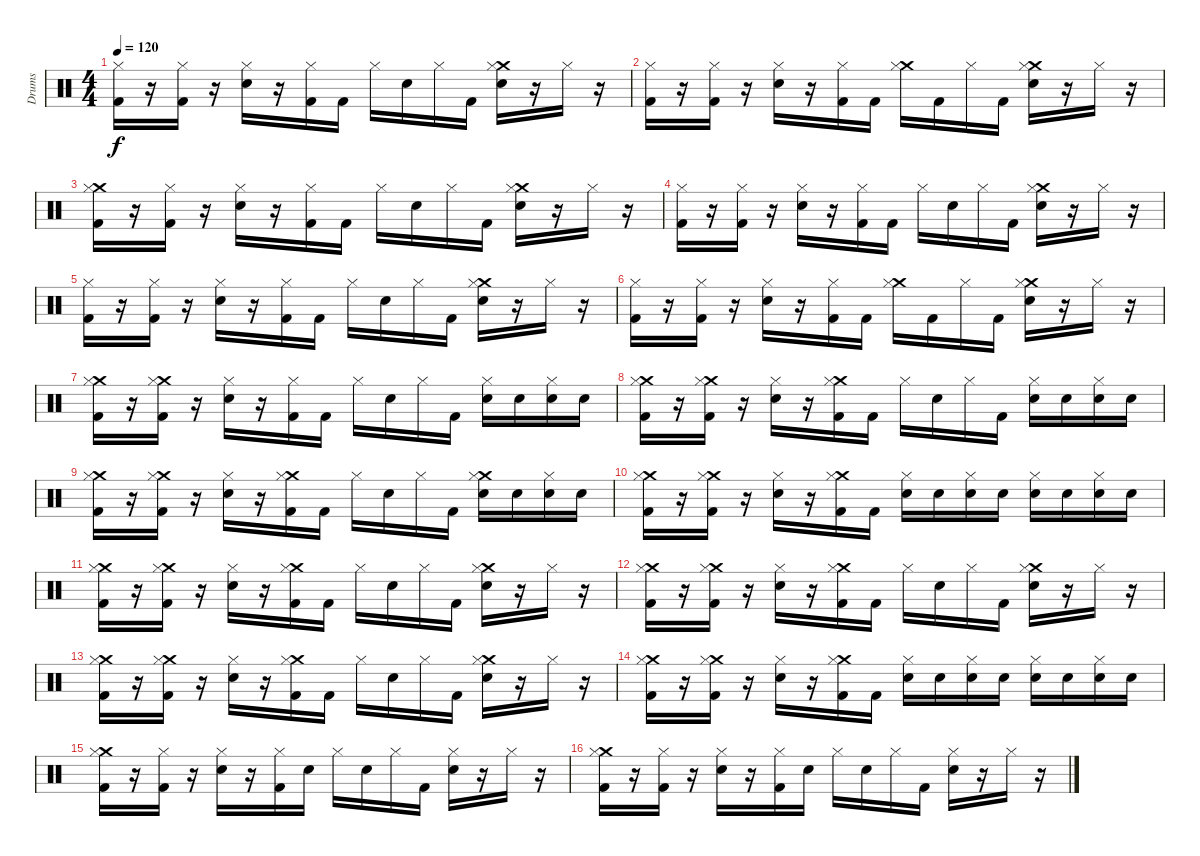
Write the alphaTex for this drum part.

\track ("Drums" "Drums") {instrument percussion}
\staff {score}
\articulation defaults
\ts (4 4)
\tempo 120
\clef neutral
\ks c
("Hi-Hat (closed)" "Kick (hit) 2").16{dy f} r.16 ("Hi-Hat (closed)" "Kick (hit) 2").16 r.16 ("Hi-Hat (closed)" "Snare (hit) 2").16 r.16 ("Hi-Hat (closed)" "Kick (hit) 2").16 "Kick (hit) 2".16 "Hi-Hat (closed)".16 "Snare (hit) 2".16 "Hi-Hat (closed)".16 "Kick (hit) 2".16 ("Crash medium (hit)" "Hi-Hat (closed)" "Snare (hit) 2").16 r.16 "Hi-Hat (closed)".16 r.16 |
("Hi-Hat (closed)" "Kick (hit) 2").16 r.16 ("Hi-Hat (closed)" "Kick (hit) 2").16 r.16 ("Hi-Hat (closed)" "Snare (hit) 2").16 r.16 ("Hi-Hat (closed)" "Kick (hit) 2").16 "Kick (hit) 2".16 ("Crash medium (hit)" "Hi-Hat (closed)").16 "Kick (hit) 2".16 "Hi-Hat (closed)".16 "Kick (hit) 2".16 ("Crash medium (hit)" "Hi-Hat (closed)" "Snare (hit) 2").16 r.16 "Hi-Hat (closed)".16 r.16 |
("Crash medium (hit)" "Hi-Hat (closed)" "Kick (hit) 2").16 r.16 ("Hi-Hat (closed)" "Kick (hit) 2").16 r.16 ("Hi-Hat (closed)" "Snare (hit) 2").16 r.16 ("Hi-Hat (closed)" "Kick (hit) 2").16 "Kick (hit) 2".16 "Hi-Hat (closed)".16 "Snare (hit) 2".16 "Hi-Hat (closed)".16 "Kick (hit) 2".16 ("Crash medium (hit)" "Hi-Hat (closed)" "Snare (hit) 2").16 r.16 "Hi-Hat (closed)".16 r.16 |
("Hi-Hat (closed)" "Kick (hit) 2").16 r.16 ("Hi-Hat (closed)" "Kick (hit) 2").16 r.16 ("Hi-Hat (closed)" "Snare (hit) 2").16 r.16 ("Hi-Hat (closed)" "Kick (hit) 2").16 "Kick (hit) 2".16 "Hi-Hat (closed)".16 "Snare (hit) 2".16 "Hi-Hat (closed)".16 "Kick (hit) 2".16 ("Crash medium (hit)" "Hi-Hat (closed)" "Snare (hit) 2").16 r.16 "Hi-Hat (closed)".16 r.16 |
("Hi-Hat (closed)" "Kick (hit) 2").16 r.16 ("Hi-Hat (closed)" "Kick (hit) 2").16 r.16 ("Hi-Hat (closed)" "Snare (hit) 2").16 r.16 ("Hi-Hat (closed)" "Kick (hit) 2").16 "Kick (hit) 2".16 "Hi-Hat (closed)".16 "Snare (hit) 2".16 "Hi-Hat (closed)".16 "Kick (hit) 2".16 ("Crash medium (hit)" "Hi-Hat (closed)" "Snare (hit) 2").16 r.16 "Hi-Hat (closed)".16 r.16 |
("Hi-Hat (closed)" "Kick (hit) 2").16 r.16 ("Hi-Hat (closed)" "Kick (hit) 2").16 r.16 ("Hi-Hat (closed)" "Snare (hit) 2").16 r.16 ("Hi-Hat (closed)" "Kick (hit) 2").16 "Kick (hit) 2".16 ("Crash medium (hit)" "Hi-Hat (closed)").16 "Kick (hit) 2".16 "Hi-Hat (closed)".16 "Kick (hit) 2".16 ("Crash medium (hit)" "Hi-Hat (closed)" "Snare (hit) 2").16 r.16 "Hi-Hat (closed)".16 r.16 |
("Crash medium (hit)" "Hi-Hat (closed)" "Kick (hit) 2").16 r.16 ("Crash medium (hit)" "Hi-Hat (closed)" "Kick (hit) 2").16 r.16 ("Hi-Hat (closed)" "Snare (hit) 2").16 r.16 ("Hi-Hat (closed)" "Kick (hit) 2").16 "Kick (hit) 2".16 "Hi-Hat (closed)".16 "Snare (hit) 2".16 "Hi-Hat (closed)".16 "Kick (hit) 2".16 ("Hi-Hat (closed)" "Snare (hit) 2").16 "Snare (hit) 2".16 ("Hi-Hat (closed)" "Snare (hit) 2").16 "Snare (hit) 2".16 |
("Crash medium (hit)" "Hi-Hat (closed)" "Kick (hit) 2").16 r.16 ("Crash medium (hit)" "Hi-Hat (closed)" "Kick (hit) 2").16 r.16 ("Hi-Hat (closed)" "Snare (hit) 2").16 r.16 ("Crash medium (hit)" "Hi-Hat (closed)" "Kick (hit) 2").16 "Kick (hit) 2".16 "Hi-Hat (closed)".16 "Snare (hit) 2".16 "Hi-Hat (closed)".16 "Kick (hit) 2".16 ("Hi-Hat (closed)" "Snare (hit) 2").16 "Snare (hit) 2".16 ("Hi-Hat (closed)" "Snare (hit) 2").16 "Snare (hit) 2".16 |
("Crash medium (hit)" "Hi-Hat (closed)" "Kick (hit) 2").16 r.16 ("Crash medium (hit)" "Hi-Hat (closed)" "Kick (hit) 2").16 r.16 ("Hi-Hat (closed)" "Snare (hit) 2").16 r.16 ("Crash medium (hit)" "Hi-Hat (closed)" "Kick (hit) 2").16 "Kick (hit) 2".16 "Hi-Hat (closed)".16 "Snare (hit) 2".16 "Hi-Hat (closed)".16 "Kick (hit) 2".16 ("Crash medium (hit)" "Hi-Hat (closed)" "Snare (hit) 2").16 "Snare (hit) 2".16 ("Hi-Hat (closed)" "Snare (hit) 2").16 "Snare (hit) 2".16 |
("Crash medium (hit)" "Hi-Hat (closed)" "Kick (hit) 2").16 r.16 ("Crash medium (hit)" "Hi-Hat (closed)" "Kick (hit) 2").16 r.16 ("Hi-Hat (closed)" "Snare (hit) 2").16 r.16 ("Crash medium (hit)" "Hi-Hat (closed)" "Kick (hit) 2").16 "Kick (hit) 2".16 ("Hi-Hat (closed)" "Snare (hit) 2").16 "Snare (hit) 2".16 ("Hi-Hat (closed)" "Snare (hit) 2").16 "Snare (hit) 2".16 ("Hi-Hat (closed)" "Snare (hit) 2").16 "Snare (hit) 2".16 ("Hi-Hat (closed)" "Snare (hit) 2").16 "Snare (hit) 2".16 |
("Crash medium (hit)" "Hi-Hat (closed)" "Kick (hit) 2").16 r.16 ("Crash medium (hit)" "Hi-Hat (closed)" "Kick (hit) 2").16 r.16 ("Hi-Hat (closed)" "Snare (hit) 2").16 r.16 ("Crash medium (hit)" "Hi-Hat (closed)" "Kick (hit) 2").16 "Kick (hit) 2".16 "Hi-Hat (closed)".16 "Snare (hit) 2".16 "Hi-Hat (closed)".16 "Kick (hit) 2".16 ("Crash medium (hit)" "Hi-Hat (closed)" "Snare (hit) 2").16 r.16 "Hi-Hat (closed)".16 r.16 |
("Crash medium (hit)" "Hi-Hat (closed)" "Kick (hit) 2").16 r.16 ("Crash medium (hit)" "Hi-Hat (closed)" "Kick (hit) 2").16 r.16 ("Hi-Hat (closed)" "Snare (hit) 2").16 r.16 ("Crash medium (hit)" "Hi-Hat (closed)" "Kick (hit) 2").16 "Kick (hit) 2".16 "Hi-Hat (closed)".16 "Snare (hit) 2".16 "Hi-Hat (closed)".16 "Kick (hit) 2".16 ("Crash medium (hit)" "Hi-Hat (closed)" "Snare (hit) 2").16 r.16 "Hi-Hat (closed)".16 r.16 |
("Crash medium (hit)" "Hi-Hat (closed)" "Kick (hit) 2").16 r.16 ("Crash medium (hit)" "Hi-Hat (closed)" "Kick (hit) 2").16 r.16 ("Hi-Hat (closed)" "Snare (hit) 2").16 r.16 ("Crash medium (hit)" "Hi-Hat (closed)" "Kick (hit) 2").16 "Kick (hit) 2".16 "Hi-Hat (closed)".16 "Snare (hit) 2".16 "Hi-Hat (closed)".16 "Kick (hit) 2".16 ("Crash medium (hit)" "Hi-Hat (closed)" "Snare (hit) 2").16 r.16 "Hi-Hat (closed)".16 r.16 |
("Crash medium (hit)" "Hi-Hat (closed)" "Kick (hit) 2").16 r.16 ("Crash medium (hit)" "Hi-Hat (closed)" "Kick (hit) 2").16 r.16 ("Hi-Hat (closed)" "Snare (hit) 2").16 r.16 ("Crash medium (hit)" "Hi-Hat (closed)" "Kick (hit) 2").16 "Kick (hit) 2".16 ("Hi-Hat (closed)" "Snare (hit) 2").16 "Snare (hit) 2".16 ("Hi-Hat (closed)" "Snare (hit) 2").16 "Snare (hit) 2".16 ("Hi-Hat (closed)" "Snare (hit) 2").16 "Snare (hit) 2".16 ("Hi-Hat (closed)" "Snare (hit) 2").16 "Snare (hit) 2".16 |
("Crash medium (hit)" "Hi-Hat (closed)" "Kick (hit) 2").16 r.16 ("Hi-Hat (closed)" "Kick (hit) 2").16 r.16 ("Hi-Hat (closed)" "Snare (hit) 2").16 r.16 ("Hi-Hat (closed)" "Kick (hit) 2").16 "Snare (hit) 2".16 "Hi-Hat (closed)".16 "Snare (hit) 2".16 "Hi-Hat (closed)".16 "Kick (hit) 2".16 ("Hi-Hat (closed)" "Snare (hit) 2").16 r.16 "Hi-Hat (closed)".16 r.16 |
("Crash medium (hit)" "Hi-Hat (closed)" "Kick (hit) 2").16 r.16 ("Hi-Hat (closed)" "Kick (hit) 2").16 r.16 ("Hi-Hat (closed)" "Snare (hit) 2").16 r.16 ("Hi-Hat (closed)" "Kick (hit) 2").16 "Snare (hit) 2".16 "Hi-Hat (closed)".16 "Snare (hit) 2".16 "Hi-Hat (closed)".16 "Kick (hit) 2".16 ("Hi-Hat (closed)" "Snare (hit) 2").16 r.16 "Hi-Hat (closed)".16 r.16
